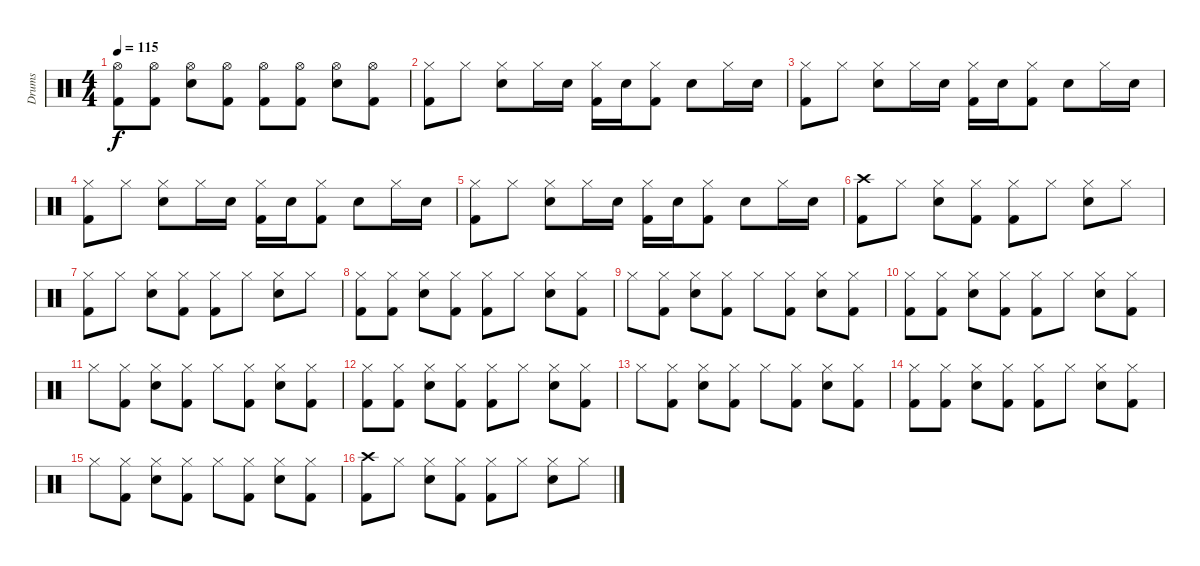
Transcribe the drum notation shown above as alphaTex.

\track ("Drums" "Drums") {instrument percussion}
\staff {score}
\articulation defaults
\ts (4 4)
\tempo 115
\clef neutral
\ks c
("Kick (hit) 2" "Hi-Hat (open)").8{dy f} ("Kick (hit) 2" "Hi-Hat (open)").8 ("Hi-Hat (open)" "Electric Snare (hit)").8 ("Hi-Hat (open)" "Kick (hit) 2").8 ("Hi-Hat (open)" "Kick (hit) 2").8 ("Hi-Hat (open)" "Kick (hit) 2").8 ("Hi-Hat (open)" "Electric Snare (hit)").8 ("Hi-Hat (open)" "Kick (hit) 2").8 |
("Hi-Hat (closed)" "Kick (hit) 2").8 "Hi-Hat (closed)".8 ("Hi-Hat (closed)" "Electric Snare (hit)").8 "Hi-Hat (closed)".16 "Electric Snare (hit)".16 ("Hi-Hat (closed)" "Kick (hit) 2").16 "Electric Snare (hit)".16 ("Hi-Hat (closed)" "Kick (hit) 2").8 "Electric Snare (hit)".8 "Hi-Hat (closed)".16 "Electric Snare (hit)".16 |
("Hi-Hat (closed)" "Kick (hit) 2").8 "Hi-Hat (closed)".8 ("Hi-Hat (closed)" "Electric Snare (hit)").8 "Hi-Hat (closed)".16 "Electric Snare (hit)".16 ("Hi-Hat (closed)" "Kick (hit) 2").16 "Electric Snare (hit)".16 ("Hi-Hat (closed)" "Kick (hit) 2").8 "Electric Snare (hit)".8 "Hi-Hat (closed)".16 "Electric Snare (hit)".16 |
("Hi-Hat (closed)" "Kick (hit) 2").8 "Hi-Hat (closed)".8 ("Hi-Hat (closed)" "Electric Snare (hit)").8 "Hi-Hat (closed)".16 "Electric Snare (hit)".16 ("Hi-Hat (closed)" "Kick (hit) 2").16 "Electric Snare (hit)".16 ("Hi-Hat (closed)" "Kick (hit) 2").8 "Electric Snare (hit)".8 "Hi-Hat (closed)".16 "Electric Snare (hit)".16 |
("Hi-Hat (closed)" "Kick (hit) 2").8 "Hi-Hat (closed)".8 ("Hi-Hat (closed)" "Electric Snare (hit)").8 "Hi-Hat (closed)".16 "Electric Snare (hit)".16 ("Hi-Hat (closed)" "Kick (hit) 2").16 "Electric Snare (hit)".16 ("Hi-Hat (closed)" "Kick (hit) 2").8 "Electric Snare (hit)".8 "Hi-Hat (closed)".16 "Electric Snare (hit)".16 |
("Crash high (hit)" "Kick (hit) 2").8 "Hi-Hat (closed)".8 ("Hi-Hat (closed)" "Electric Snare (hit)").8 ("Hi-Hat (closed)" "Kick (hit) 2").8 ("Hi-Hat (closed)" "Kick (hit) 2").8 "Hi-Hat (closed)".8 ("Hi-Hat (closed)" "Electric Snare (hit)").8 "Hi-Hat (closed)".8 |
("Hi-Hat (closed)" "Kick (hit) 2").8 "Hi-Hat (closed)".8 ("Hi-Hat (closed)" "Electric Snare (hit)").8 ("Hi-Hat (closed)" "Kick (hit) 2").8 ("Hi-Hat (closed)" "Kick (hit) 2").8 "Hi-Hat (closed)".8 ("Hi-Hat (closed)" "Electric Snare (hit)").8 "Hi-Hat (closed)".8 |
("Kick (hit) 2" "Hi-Hat (closed)").8 ("Kick (hit) 2" "Hi-Hat (closed)").8 ("Hi-Hat (closed)" "Electric Snare (hit)").8 ("Hi-Hat (closed)" "Kick (hit) 2").8 ("Hi-Hat (closed)" "Kick (hit) 2").8 "Hi-Hat (closed)".8 ("Hi-Hat (closed)" "Electric Snare (hit)").8 ("Hi-Hat (closed)" "Kick (hit) 2").8 |
"Hi-Hat (closed)".8 ("Hi-Hat (closed)" "Kick (hit) 2").8 ("Hi-Hat (closed)" "Electric Snare (hit)").8 ("Hi-Hat (closed)" "Kick (hit) 2").8 "Hi-Hat (closed)".8 ("Hi-Hat (closed)" "Kick (hit) 2").8 ("Hi-Hat (closed)" "Electric Snare (hit)").8 ("Hi-Hat (closed)" "Kick (hit) 2").8 |
("Kick (hit) 2" "Hi-Hat (closed)").8 ("Kick (hit) 2" "Hi-Hat (closed)").8 ("Hi-Hat (closed)" "Electric Snare (hit)").8 ("Hi-Hat (closed)" "Kick (hit) 2").8 ("Hi-Hat (closed)" "Kick (hit) 2").8 "Hi-Hat (closed)".8 ("Hi-Hat (closed)" "Electric Snare (hit)").8 ("Hi-Hat (closed)" "Kick (hit) 2").8 |
"Hi-Hat (closed)".8 ("Hi-Hat (closed)" "Kick (hit) 2").8 ("Hi-Hat (closed)" "Electric Snare (hit)").8 ("Hi-Hat (closed)" "Kick (hit) 2").8 "Hi-Hat (closed)".8 ("Hi-Hat (closed)" "Kick (hit) 2").8 ("Hi-Hat (closed)" "Electric Snare (hit)").8 ("Hi-Hat (closed)" "Kick (hit) 2").8 |
("Kick (hit) 2" "Hi-Hat (closed)").8 ("Kick (hit) 2" "Hi-Hat (closed)").8 ("Hi-Hat (closed)" "Electric Snare (hit)").8 ("Hi-Hat (closed)" "Kick (hit) 2").8 ("Hi-Hat (closed)" "Kick (hit) 2").8 "Hi-Hat (closed)".8 ("Hi-Hat (closed)" "Electric Snare (hit)").8 ("Hi-Hat (closed)" "Kick (hit) 2").8 |
"Hi-Hat (closed)".8 ("Hi-Hat (closed)" "Kick (hit) 2").8 ("Hi-Hat (closed)" "Electric Snare (hit)").8 ("Hi-Hat (closed)" "Kick (hit) 2").8 "Hi-Hat (closed)".8 ("Hi-Hat (closed)" "Kick (hit) 2").8 ("Hi-Hat (closed)" "Electric Snare (hit)").8 ("Hi-Hat (closed)" "Kick (hit) 2").8 |
("Kick (hit) 2" "Hi-Hat (closed)").8 ("Kick (hit) 2" "Hi-Hat (closed)").8 ("Hi-Hat (closed)" "Electric Snare (hit)").8 ("Hi-Hat (closed)" "Kick (hit) 2").8 ("Hi-Hat (closed)" "Kick (hit) 2").8 "Hi-Hat (closed)".8 ("Hi-Hat (closed)" "Electric Snare (hit)").8 ("Hi-Hat (closed)" "Kick (hit) 2").8 |
"Hi-Hat (closed)".8 ("Hi-Hat (closed)" "Kick (hit) 2").8 ("Hi-Hat (closed)" "Electric Snare (hit)").8 ("Hi-Hat (closed)" "Kick (hit) 2").8 "Hi-Hat (closed)".8 ("Hi-Hat (closed)" "Kick (hit) 2").8 ("Hi-Hat (closed)" "Electric Snare (hit)").8 ("Hi-Hat (closed)" "Kick (hit) 2").8 |
("Crash high (hit)" "Kick (hit) 2").8 "Hi-Hat (closed)".8 ("Hi-Hat (closed)" "Electric Snare (hit)").8 ("Hi-Hat (closed)" "Kick (hit) 2").8 ("Hi-Hat (closed)" "Kick (hit) 2").8 "Hi-Hat (closed)".8 ("Hi-Hat (closed)" "Electric Snare (hit)").8 "Hi-Hat (closed)".8
